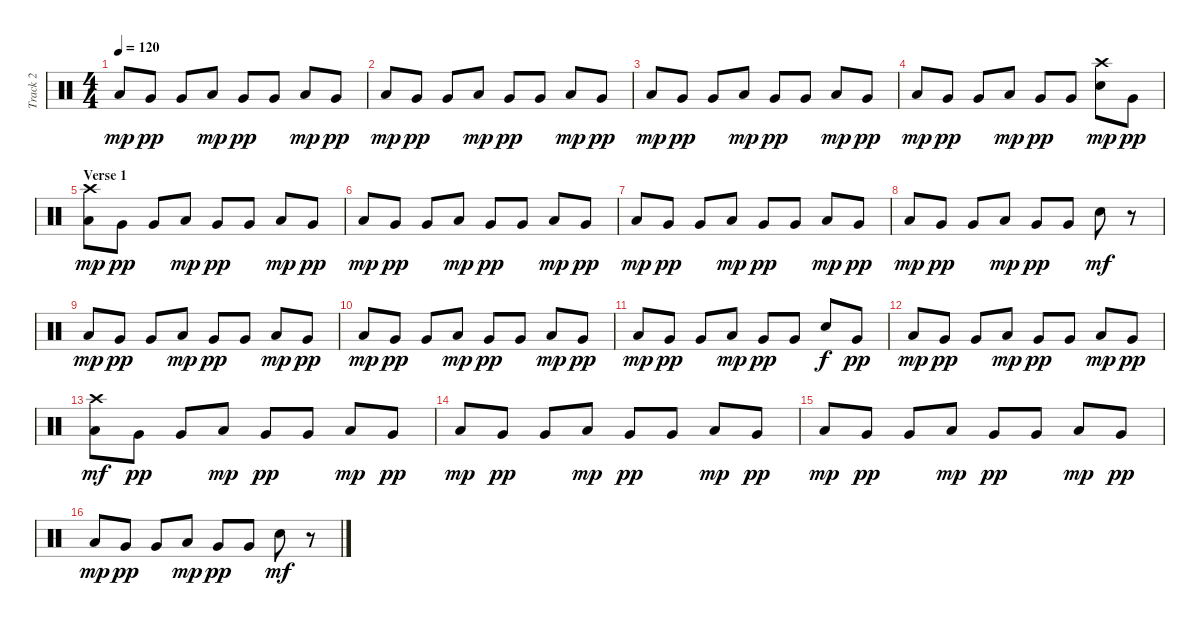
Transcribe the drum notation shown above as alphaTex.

\track ("Track 2" "Track 2") {instrument percussion}
\staff {score}
\articulation defaults
\ts (4 4)
\tempo 120
\clef neutral
\ks c "Low Tom (hit)".8{dy mp} "Very Low Tom (hit)".8{dy pp} "Very Low Tom (hit)".8 "Low Tom (hit)".8{dy mp} "Very Low Tom (hit)".8{dy pp} "Very Low Tom (hit)".8 "Low Tom (hit)".8{dy mp} "Very Low Tom (hit)".8{dy pp}
|
"Low Tom (hit)".8{dy mp} "Very Low Tom (hit)".8{dy pp} "Very Low Tom (hit)".8 "Low Tom (hit)".8{dy mp} "Very Low Tom (hit)".8{dy pp} "Very Low Tom (hit)".8 "Low Tom (hit)".8{dy mp} "Very Low Tom (hit)".8{dy pp} |
"Low Tom (hit)".8{dy mp} "Very Low Tom (hit)".8{dy pp} "Very Low Tom (hit)".8 "Low Tom (hit)".8{dy mp} "Very Low Tom (hit)".8{dy pp} "Very Low Tom (hit)".8 "Low Tom (hit)".8{dy mp} "Very Low Tom (hit)".8{dy pp} |
"Low Tom (hit)".8{dy mp} "Very Low Tom (hit)".8{dy pp} "Very Low Tom (hit)".8 "Low Tom (hit)".8{dy mp} "Very Low Tom (hit)".8{dy pp} "Very Low Tom (hit)".8 ("Electric Snare (hit)" "Crash high (hit)").8{dy mp} "Very Low Tom (hit)".8{dy pp} |
\section ("" "Verse 1")
("Low Tom (hit)" "Crash high (hit)").8{dy mp} "Very Low Tom (hit)".8{dy pp} "Very Low Tom (hit)".8 "Low Tom (hit)".8{dy mp} "Very Low Tom (hit)".8{dy pp} "Very Low Tom (hit)".8 "Low Tom (hit)".8{dy mp} "Very Low Tom (hit)".8{dy pp} |
"Low Tom (hit)".8{dy mp} "Very Low Tom (hit)".8{dy pp} "Very Low Tom (hit)".8 "Low Tom (hit)".8{dy mp} "Very Low Tom (hit)".8{dy pp} "Very Low Tom (hit)".8 "Low Tom (hit)".8{dy mp} "Very Low Tom (hit)".8{dy pp} |
"Low Tom (hit)".8{dy mp} "Very Low Tom (hit)".8{dy pp} "Very Low Tom (hit)".8 "Low Tom (hit)".8{dy mp} "Very Low Tom (hit)".8{dy pp} "Very Low Tom (hit)".8 "Low Tom (hit)".8{dy mp} "Very Low Tom (hit)".8{dy pp} |
"Low Tom (hit)".8{dy mp} "Very Low Tom (hit)".8{dy pp} "Very Low Tom (hit)".8 "Low Tom (hit)".8{dy mp} "Very Low Tom (hit)".8{dy pp} "Very Low Tom (hit)".8 "Electric Snare (hit)".8{dy mf} r.8 |
"Low Tom (hit)".8{dy mp} "Very Low Tom (hit)".8{dy pp} "Very Low Tom (hit)".8 "Low Tom (hit)".8{dy mp} "Very Low Tom (hit)".8{dy pp} "Very Low Tom (hit)".8 "Low Tom (hit)".8{dy mp} "Very Low Tom (hit)".8{dy pp} |
"Low Tom (hit)".8{dy mp} "Very Low Tom (hit)".8{dy pp} "Very Low Tom (hit)".8 "Low Tom (hit)".8{dy mp} "Very Low Tom (hit)".8{dy pp} "Very Low Tom (hit)".8 "Low Tom (hit)".8{dy mp} "Very Low Tom (hit)".8{dy pp} |
"Low Tom (hit)".8{dy mp} "Very Low Tom (hit)".8{dy pp} "Very Low Tom (hit)".8 "Low Tom (hit)".8{dy mp} "Very Low Tom (hit)".8{dy pp} "Very Low Tom (hit)".8 "Electric Snare (hit)".8{dy f} "Very Low Tom (hit)".8{dy pp} |
"Low Tom (hit)".8{dy mp} "Very Low Tom (hit)".8{dy pp} "Very Low Tom (hit)".8 "Low Tom (hit)".8{dy mp} "Very Low Tom (hit)".8{dy pp} "Very Low Tom (hit)".8 "Low Tom (hit)".8{dy mp} "Very Low Tom (hit)".8{dy pp} |
("Low Tom (hit)" "Crash high (hit)").8{dy mf} "Very Low Tom (hit)".8{dy pp} "Very Low Tom (hit)".8 "Low Tom (hit)".8{dy mp} "Very Low Tom (hit)".8{dy pp} "Very Low Tom (hit)".8 "Low Tom (hit)".8{dy mp} "Very Low Tom (hit)".8{dy pp} |
"Low Tom (hit)".8{dy mp} "Very Low Tom (hit)".8{dy pp} "Very Low Tom (hit)".8 "Low Tom (hit)".8{dy mp} "Very Low Tom (hit)".8{dy pp} "Very Low Tom (hit)".8 "Low Tom (hit)".8{dy mp} "Very Low Tom (hit)".8{dy pp} |
"Low Tom (hit)".8{dy mp} "Very Low Tom (hit)".8{dy pp} "Very Low Tom (hit)".8 "Low Tom (hit)".8{dy mp} "Very Low Tom (hit)".8{dy pp} "Very Low Tom (hit)".8 "Low Tom (hit)".8{dy mp} "Very Low Tom (hit)".8{dy pp} |
"Low Tom (hit)".8{dy mp} "Very Low Tom (hit)".8{dy pp} "Very Low Tom (hit)".8 "Low Tom (hit)".8{dy mp} "Very Low Tom (hit)".8{dy pp} "Very Low Tom (hit)".8 "Electric Snare (hit)".8{dy mf} r.8
